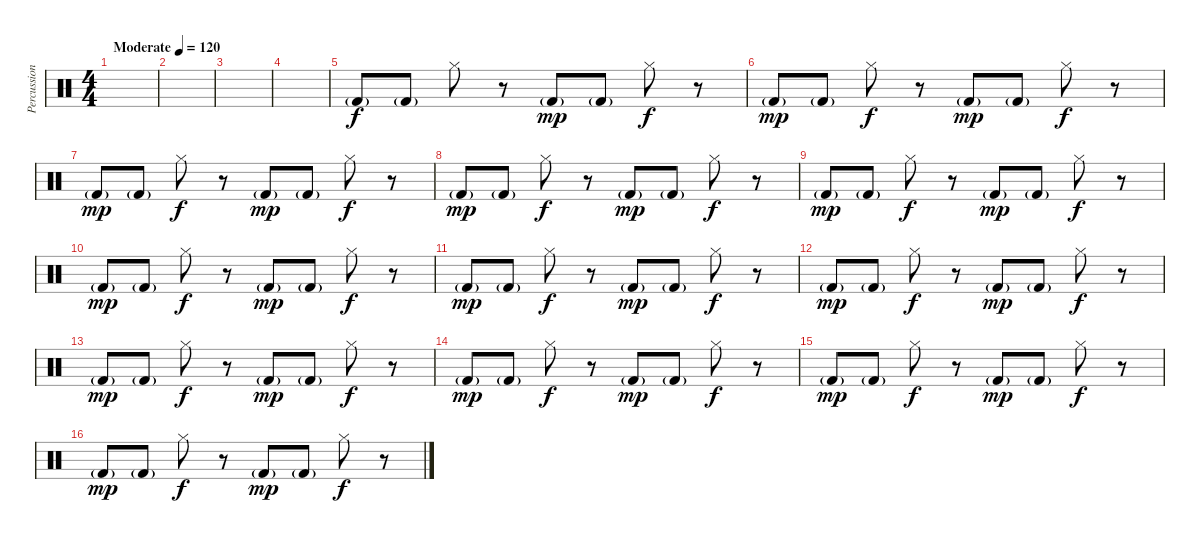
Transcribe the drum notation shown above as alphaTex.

\track ("Percussion" "Percussion") {instrument percussion}
\staff {score}
\articulation defaults
\ts (4 4)
\tempo (120 "Moderate")
\clef neutral
\ks c
|
|
|
|
"Kick (hit) 2"{g}.8 "Kick (hit) 2"{g}.8 "Hi-Hat (closed)".8{dy f} r.8 "Kick (hit) 2"{g}.8{dy mp} "Kick (hit) 2"{g}.8 "Hi-Hat (closed)".8{dy f} r.8 |
"Kick (hit) 2"{g}.8{dy mp} "Kick (hit) 2"{g}.8 "Hi-Hat (closed)".8{dy f} r.8 "Kick (hit) 2"{g}.8{dy mp} "Kick (hit) 2"{g}.8 "Hi-Hat (closed)".8{dy f} r.8 |
"Kick (hit) 2"{g}.8{dy mp} "Kick (hit) 2"{g}.8 "Hi-Hat (closed)".8{dy f} r.8 "Kick (hit) 2"{g}.8{dy mp} "Kick (hit) 2"{g}.8 "Hi-Hat (closed)".8{dy f} r.8 |
"Kick (hit) 2"{g}.8{dy mp} "Kick (hit) 2"{g}.8 "Hi-Hat (closed)".8{dy f} r.8 "Kick (hit) 2"{g}.8{dy mp} "Kick (hit) 2"{g}.8 "Hi-Hat (closed)".8{dy f} r.8 |
"Kick (hit) 2"{g}.8{dy mp} "Kick (hit) 2"{g}.8 "Hi-Hat (closed)".8{dy f} r.8 "Kick (hit) 2"{g}.8{dy mp} "Kick (hit) 2"{g}.8 "Hi-Hat (closed)".8{dy f} r.8 |
"Kick (hit) 2"{g}.8{dy mp} "Kick (hit) 2"{g}.8 "Hi-Hat (closed)".8{dy f} r.8 "Kick (hit) 2"{g}.8{dy mp} "Kick (hit) 2"{g}.8 "Hi-Hat (closed)".8{dy f} r.8 |
"Kick (hit) 2"{g}.8{dy mp} "Kick (hit) 2"{g}.8 "Hi-Hat (closed)".8{dy f} r.8 "Kick (hit) 2"{g}.8{dy mp} "Kick (hit) 2"{g}.8 "Hi-Hat (closed)".8{dy f} r.8 |
"Kick (hit) 2"{g}.8{dy mp} "Kick (hit) 2"{g}.8 "Hi-Hat (closed)".8{dy f} r.8 "Kick (hit) 2"{g}.8{dy mp} "Kick (hit) 2"{g}.8 "Hi-Hat (closed)".8{dy f} r.8 |
"Kick (hit) 2"{g}.8{dy mp} "Kick (hit) 2"{g}.8 "Hi-Hat (closed)".8{dy f} r.8 "Kick (hit) 2"{g}.8{dy mp} "Kick (hit) 2"{g}.8 "Hi-Hat (closed)".8{dy f} r.8 |
"Kick (hit) 2"{g}.8{dy mp} "Kick (hit) 2"{g}.8 "Hi-Hat (closed)".8{dy f} r.8 "Kick (hit) 2"{g}.8{dy mp} "Kick (hit) 2"{g}.8 "Hi-Hat (closed)".8{dy f} r.8 |
"Kick (hit) 2"{g}.8{dy mp} "Kick (hit) 2"{g}.8 "Hi-Hat (closed)".8{dy f} r.8 "Kick (hit) 2"{g}.8{dy mp} "Kick (hit) 2"{g}.8 "Hi-Hat (closed)".8{dy f} r.8 |
"Kick (hit) 2"{g}.8{dy mp} "Kick (hit) 2"{g}.8 "Hi-Hat (closed)".8{dy f} r.8 "Kick (hit) 2"{g}.8{dy mp} "Kick (hit) 2"{g}.8 "Hi-Hat (closed)".8{dy f} r.8
